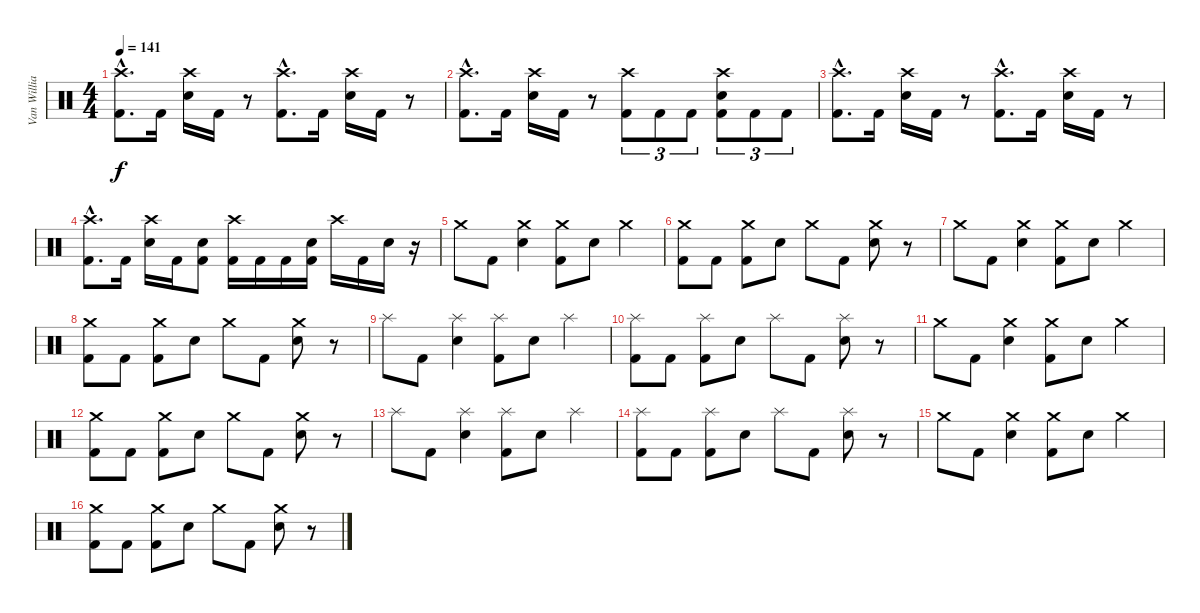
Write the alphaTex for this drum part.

\track ("Van Williams" "Van Willia") {instrument percussion}
\staff {score}
\articulation defaults
\ts (4 4)
\tempo 141
\clef neutral
\ks c
("Crash high (hit)"{hac} "Kick (hit) 2"{hac}).8{d dy f} "Kick (hit) 2".16 ("Crash high (hit)" "Electric Snare (hit)").16 "Kick (hit) 2".16 r.8 ("Crash high (hit)"{hac} "Kick (hit) 2"{hac}).8{d} "Kick (hit) 2".16 ("Crash high (hit)" "Electric Snare (hit)").16 "Kick (hit) 2".16 r.8 |
("Crash high (hit)"{hac} "Kick (hit) 2"{hac}).8{d} "Kick (hit) 2".16 ("Crash high (hit)" "Electric Snare (hit)").16 "Kick (hit) 2".16 r.8 ("Crash high (hit)" "Kick (hit) 2").8{tu (3 2)} "Kick (hit) 2".8{tu (3 2)} "Kick (hit) 2".8{tu (3 2)} ("Crash high (hit)" "Electric Snare (hit)" "Kick (hit) 2").8{tu (3 2)} "Kick (hit) 2".8{tu (3 2)} "Kick (hit) 2".8{tu (3 2)} |
("Crash high (hit)"{hac} "Kick (hit) 2"{hac}).8{d} "Kick (hit) 2".16 ("Crash high (hit)" "Electric Snare (hit)").16 "Kick (hit) 2".16 r.8 ("Crash high (hit)"{hac} "Kick (hit) 2"{hac}).8{d} "Kick (hit) 2".16 ("Crash high (hit)" "Electric Snare (hit)").16 "Kick (hit) 2".16 r.8 |
("Crash high (hit)"{hac} "Kick (hit) 2"{hac}).8{d} "Kick (hit) 2".16 ("Crash high (hit)" "Electric Snare (hit)").16 "Kick (hit) 2".16 ("Electric Snare (hit)" "Kick (hit) 2").8 ("Crash high (hit)" "Kick (hit) 2").16 "Kick (hit) 2".16 "Kick (hit) 2".16 ("Electric Snare (hit)" "Kick (hit) 2").16 "Crash high (hit)".16 "Kick (hit) 2".16 "Electric Snare (hit)".16 r.16 |
"Crash medium (hit)".8 "Kick (hit) 2".8 ("Crash medium (hit)" "Electric Snare (hit)").4 ("Crash medium (hit)" "Kick (hit) 2").8 "Electric Snare (hit)".8 "Crash medium (hit)".4 |
("Crash medium (hit)" "Kick (hit) 2").8 "Kick (hit) 2".8 ("Crash medium (hit)" "Kick (hit) 2").8 "Electric Snare (hit)".8 "Crash medium (hit)".8 "Kick (hit) 2".8 ("Crash medium (hit)" "Electric Snare (hit)").8 r.8 |
"Crash medium (hit)".8 "Kick (hit) 2".8 ("Crash medium (hit)" "Electric Snare (hit)").4 ("Crash medium (hit)" "Kick (hit) 2").8 "Electric Snare (hit)".8 "Crash medium (hit)".4 |
("Crash medium (hit)" "Kick (hit) 2").8 "Kick (hit) 2".8 ("Crash medium (hit)" "Kick (hit) 2").8 "Electric Snare (hit)".8 "Crash medium (hit)".8 "Kick (hit) 2".8 ("Crash medium (hit)" "Electric Snare (hit)").8 r.8 |
"Splash (hit)".8 "Kick (hit) 2".8 ("Splash (hit)" "Electric Snare (hit)").4 ("Splash (hit)" "Kick (hit) 2").8 "Electric Snare (hit)".8 "Splash (hit)".4 |
("Splash (hit)" "Kick (hit) 2").8 "Kick (hit) 2".8 ("Splash (hit)" "Kick (hit) 2").8 "Electric Snare (hit)".8 "Splash (hit)".8 "Kick (hit) 2".8 ("Splash (hit)" "Electric Snare (hit)").8 r.8 |
"Crash medium (hit)".8 "Kick (hit) 2".8 ("Crash medium (hit)" "Electric Snare (hit)").4 ("Crash medium (hit)" "Kick (hit) 2").8 "Electric Snare (hit)".8 "Crash medium (hit)".4 |
("Crash medium (hit)" "Kick (hit) 2").8 "Kick (hit) 2".8 ("Crash medium (hit)" "Kick (hit) 2").8 "Electric Snare (hit)".8 "Crash medium (hit)".8 "Kick (hit) 2".8 ("Crash medium (hit)" "Electric Snare (hit)").8 r.8 |
"Splash (hit)".8 "Kick (hit) 2".8 ("Splash (hit)" "Electric Snare (hit)").4 ("Splash (hit)" "Kick (hit) 2").8 "Electric Snare (hit)".8 "Splash (hit)".4 |
("Splash (hit)" "Kick (hit) 2").8 "Kick (hit) 2".8 ("Splash (hit)" "Kick (hit) 2").8 "Electric Snare (hit)".8 "Splash (hit)".8 "Kick (hit) 2".8 ("Splash (hit)" "Electric Snare (hit)").8 r.8 |
"Crash medium (hit)".8 "Kick (hit) 2".8 ("Crash medium (hit)" "Electric Snare (hit)").4 ("Crash medium (hit)" "Kick (hit) 2").8 "Electric Snare (hit)".8 "Crash medium (hit)".4 |
("Crash medium (hit)" "Kick (hit) 2").8 "Kick (hit) 2".8 ("Crash medium (hit)" "Kick (hit) 2").8 "Electric Snare (hit)".8 "Crash medium (hit)".8 "Kick (hit) 2".8 ("Crash medium (hit)" "Electric Snare (hit)").8 r.8
